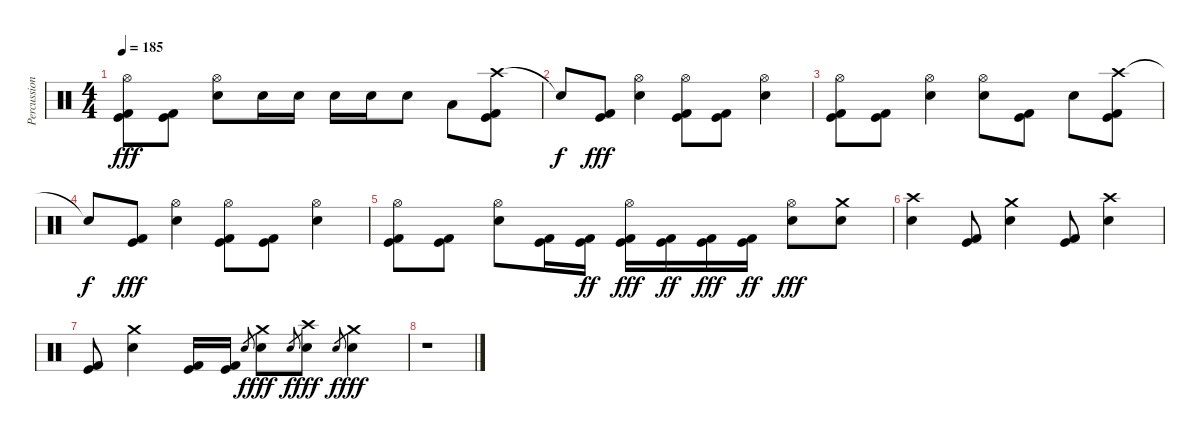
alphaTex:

\track ("Percussion" "Percussion") {instrument percussion}
\staff {score}
\articulation defaults
\ts (4 4)
\tempo 185
\clef neutral
\ks c
("Hi-Hat (open)" "Kick (hit)" "Kick (hit) 2").8{dy fff} ("Kick (hit)" "Kick (hit) 2").8 ("Hi-Hat (open)" "Snare (hit) 2").8 "Snare (hit) 2".16 "Snare (hit) 2".16 "Snare (hit) 2".16 "Snare (hit) 2".16 "Snare (hit) 2".8 "Low Tom (hit)".8 ("Crash high (hit)" "Kick (hit)" "Kick (hit) 2").8 |
"Snare (hit)"{t}.8{dy f} ("Kick (hit)" "Kick (hit) 2").8{dy fff} ("Hi-Hat (open)" "Snare (hit) 2").4 ("Hi-Hat (open)" "Kick (hit)" "Kick (hit) 2").8 ("Kick (hit)" "Kick (hit) 2").8 ("Hi-Hat (open)" "Snare (hit) 2").4 |
("Hi-Hat (open)" "Kick (hit)" "Kick (hit) 2").8 ("Kick (hit)" "Kick (hit) 2").8 ("Hi-Hat (open)" "Snare (hit) 2").4 ("Hi-Hat (open)" "Snare (hit) 2").8 ("Kick (hit)" "Kick (hit) 2").8 "Snare (hit) 2".8 ("Crash high (hit)" "Kick (hit)" "Kick (hit) 2").8 |
"Snare (hit)"{t}.8{dy f} ("Kick (hit)" "Kick (hit) 2").8{dy fff} ("Hi-Hat (open)" "Snare (hit) 2").4 ("Hi-Hat (open)" "Kick (hit)" "Kick (hit) 2").8 ("Kick (hit)" "Kick (hit) 2").8 ("Hi-Hat (open)" "Snare (hit) 2").4 |
("Hi-Hat (open)" "Kick (hit)" "Kick (hit) 2").8 ("Kick (hit)" "Kick (hit) 2").8 ("Hi-Hat (open)" "Snare (hit) 2").8 ("Kick (hit)" "Kick (hit) 2").16 ("Kick (hit)" "Kick (hit) 2").16{dy ff} ("Hi-Hat (open)" "Kick (hit)" "Kick (hit) 2").16{dy fff} ("Kick (hit)" "Kick (hit) 2").16{dy ff} ("Kick (hit)" "Kick (hit) 2").16{dy fff} ("Kick (hit)" "Kick (hit) 2").16{dy ff} ("Hi-Hat (open)" "Snare (hit) 2").8{dy fff} ("Crash medium (hit)" "Snare (hit) 2").8 |
("Crash high (hit)" "Snare (hit) 2").4 ("Kick (hit)" "Kick (hit) 2").8 ("Crash medium (hit)" "Snare (hit) 2").4 ("Kick (hit)" "Kick (hit) 2").8 ("Crash high (hit)" "Snare (hit) 2").4 |
("Kick (hit)" "Kick (hit) 2").8 ("Crash medium (hit)" "Snare (hit) 2").4 ("Kick (hit)" "Kick (hit) 2").16 ("Kick (hit)" "Kick (hit) 2").16 "Snare (hit) 2".8{gr dy f} ("Crash medium (hit)" "Snare (hit) 2").8{dy fff} "Snare (hit) 2".8{gr dy f} ("Crash high (hit)" "Snare (hit) 2").8{dy fff} "Snare (hit) 2".8{gr dy f} ("Crash medium (hit)" "Snare (hit) 2").4{dy fff} |
r.1
